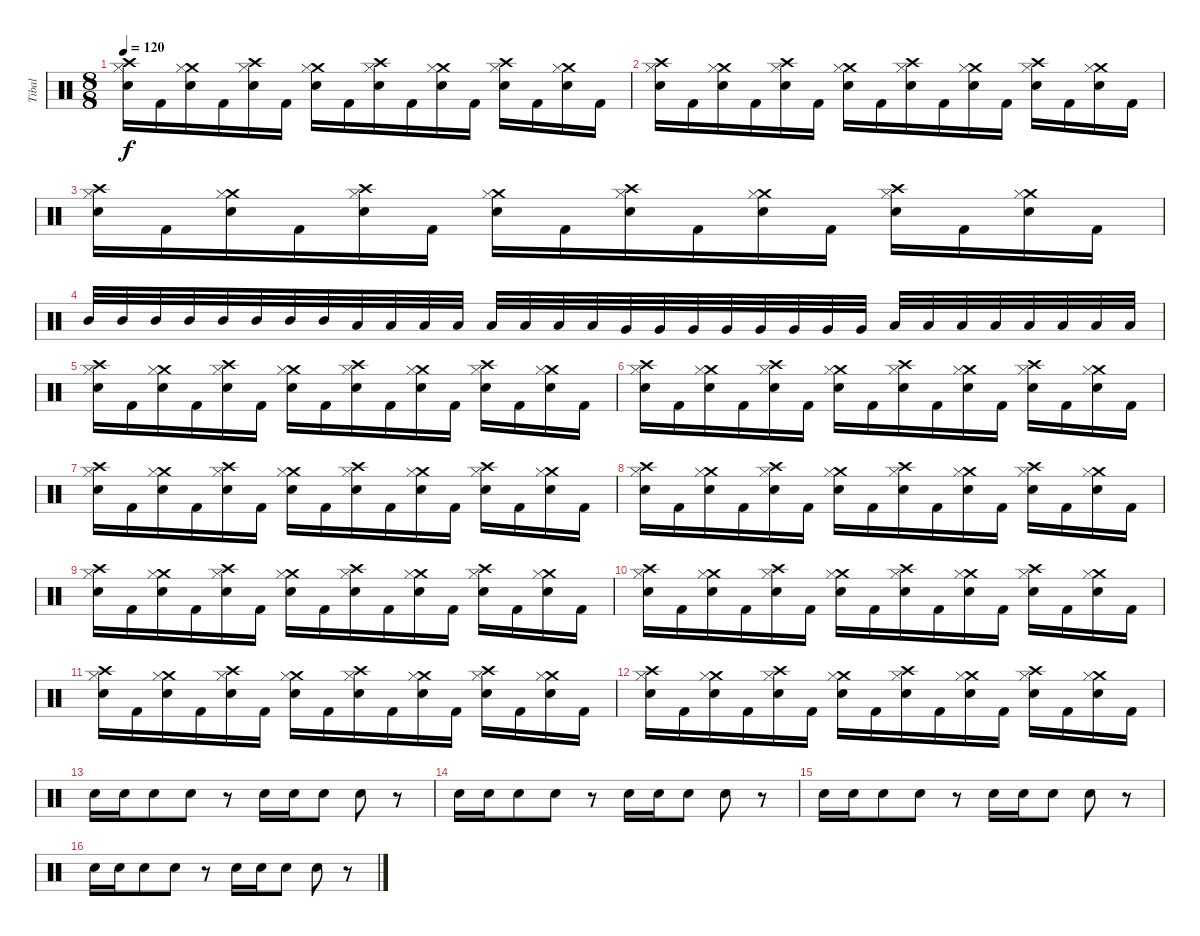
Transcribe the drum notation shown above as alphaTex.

\track ("Tibal" "Tibal") {instrument percussion}
\staff {score}
\articulation defaults
\ts (8 8)
\tempo 120
\clef neutral
\ks c
("Crash high (hit)" "Snare (hit) 2" "Hi-Hat (closed)").16{dy f} "Kick (hit) 2".16 ("Crash medium (hit)" "Snare (hit) 2" "Hi-Hat (closed)").16 "Kick (hit) 2".16 ("Crash high (hit)" "Snare (hit) 2" "Hi-Hat (closed)").16 "Kick (hit) 2".16 ("Crash medium (hit)" "Snare (hit) 2" "Hi-Hat (closed)").16 "Kick (hit) 2".16 ("Crash high (hit)" "Snare (hit) 2" "Hi-Hat (closed)").16 "Kick (hit) 2".16 ("Crash medium (hit)" "Snare (hit) 2" "Hi-Hat (closed)").16 "Kick (hit) 2".16 ("Crash high (hit)" "Snare (hit) 2" "Hi-Hat (closed)").16 "Kick (hit) 2".16 ("Crash medium (hit)" "Snare (hit) 2" "Hi-Hat (closed)").16 "Kick (hit) 2".16 |
("Crash high (hit)" "Snare (hit) 2" "Hi-Hat (closed)").16 "Kick (hit) 2".16 ("Crash medium (hit)" "Snare (hit) 2" "Hi-Hat (closed)").16 "Kick (hit) 2".16 ("Crash high (hit)" "Snare (hit) 2" "Hi-Hat (closed)").16 "Kick (hit) 2".16 ("Crash medium (hit)" "Snare (hit) 2" "Hi-Hat (closed)").16 "Kick (hit) 2".16 ("Crash high (hit)" "Snare (hit) 2" "Hi-Hat (closed)").16 "Kick (hit) 2".16 ("Crash medium (hit)" "Snare (hit) 2" "Hi-Hat (closed)").16 "Kick (hit) 2".16 ("Crash high (hit)" "Snare (hit) 2" "Hi-Hat (closed)").16 "Kick (hit) 2".16 ("Crash medium (hit)" "Snare (hit) 2" "Hi-Hat (closed)").16 "Kick (hit) 2".16 |
("Crash high (hit)" "Snare (hit) 2" "Hi-Hat (closed)").16 "Kick (hit) 2".16 ("Crash medium (hit)" "Snare (hit) 2" "Hi-Hat (closed)").16 "Kick (hit) 2".16 ("Crash high (hit)" "Snare (hit) 2" "Hi-Hat (closed)").16 "Kick (hit) 2".16 ("Crash medium (hit)" "Snare (hit) 2" "Hi-Hat (closed)").16 "Kick (hit) 2".16 ("Crash high (hit)" "Snare (hit) 2" "Hi-Hat (closed)").16 "Kick (hit) 2".16 ("Crash medium (hit)" "Snare (hit) 2" "Hi-Hat (closed)").16 "Kick (hit) 2".16 ("Crash high (hit)" "Snare (hit) 2" "Hi-Hat (closed)").16 "Kick (hit) 2".16 ("Crash medium (hit)" "Snare (hit) 2" "Hi-Hat (closed)").16 "Kick (hit) 2".16 |
"Mid Tom (hit)".32 "Mid Tom (hit)".32 "Mid Tom (hit)".32 "Mid Tom (hit)".32 "Mid Tom (hit)".32 "Mid Tom (hit)".32 "Mid Tom (hit)".32 "Mid Tom (hit)".32 "Low Tom (hit)".32 "Low Tom (hit)".32 "Low Tom (hit)".32 "Low Tom (hit)".32 "Low Tom (hit)".32 "Low Tom (hit)".32 "Low Tom (hit)".32 "Low Tom (hit)".32 "Very Low Tom (hit)".32 "Very Low Tom (hit)".32 "Very Low Tom (hit)".32 "Very Low Tom (hit)".32 "Very Low Tom (hit)".32 "Very Low Tom (hit)".32 "Very Low Tom (hit)".32 "Very Low Tom (hit)".32 "Low Floor Tom (hit)".32 "Low Floor Tom (hit)".32 "Low Floor Tom (hit)".32 "Low Floor Tom (hit)".32 "Low Floor Tom (hit)".32 "Low Floor Tom (hit)".32 "Low Floor Tom (hit)".32 "Low Floor Tom (hit)".32 |
("Crash high (hit)" "Snare (hit) 2" "Hi-Hat (closed)").16 "Kick (hit) 2".16 ("Crash medium (hit)" "Snare (hit) 2" "Hi-Hat (closed)").16 "Kick (hit) 2".16 ("Crash high (hit)" "Snare (hit) 2" "Hi-Hat (closed)").16 "Kick (hit) 2".16 ("Crash medium (hit)" "Snare (hit) 2" "Hi-Hat (closed)").16 "Kick (hit) 2".16 ("Crash high (hit)" "Snare (hit) 2" "Hi-Hat (closed)").16 "Kick (hit) 2".16 ("Crash medium (hit)" "Snare (hit) 2" "Hi-Hat (closed)").16 "Kick (hit) 2".16 ("Crash high (hit)" "Snare (hit) 2" "Hi-Hat (closed)").16 "Kick (hit) 2".16 ("Crash medium (hit)" "Snare (hit) 2" "Hi-Hat (closed)").16 "Kick (hit) 2".16 |
("Crash high (hit)" "Snare (hit) 2" "Hi-Hat (closed)").16 "Kick (hit) 2".16 ("Crash medium (hit)" "Snare (hit) 2" "Hi-Hat (closed)").16 "Kick (hit) 2".16 ("Crash high (hit)" "Snare (hit) 2" "Hi-Hat (closed)").16 "Kick (hit) 2".16 ("Crash medium (hit)" "Snare (hit) 2" "Hi-Hat (closed)").16 "Kick (hit) 2".16 ("Crash high (hit)" "Snare (hit) 2" "Hi-Hat (closed)").16 "Kick (hit) 2".16 ("Crash medium (hit)" "Snare (hit) 2" "Hi-Hat (closed)").16 "Kick (hit) 2".16 ("Crash high (hit)" "Snare (hit) 2" "Hi-Hat (closed)").16 "Kick (hit) 2".16 ("Crash medium (hit)" "Snare (hit) 2" "Hi-Hat (closed)").16 "Kick (hit) 2".16 |
("Crash high (hit)" "Snare (hit) 2" "Hi-Hat (closed)").16 "Kick (hit) 2".16 ("Crash medium (hit)" "Snare (hit) 2" "Hi-Hat (closed)").16 "Kick (hit) 2".16 ("Crash high (hit)" "Snare (hit) 2" "Hi-Hat (closed)").16 "Kick (hit) 2".16 ("Crash medium (hit)" "Snare (hit) 2" "Hi-Hat (closed)").16 "Kick (hit) 2".16 ("Crash high (hit)" "Snare (hit) 2" "Hi-Hat (closed)").16 "Kick (hit) 2".16 ("Crash medium (hit)" "Snare (hit) 2" "Hi-Hat (closed)").16 "Kick (hit) 2".16 ("Crash high (hit)" "Snare (hit) 2" "Hi-Hat (closed)").16 "Kick (hit) 2".16 ("Crash medium (hit)" "Snare (hit) 2" "Hi-Hat (closed)").16 "Kick (hit) 2".16 |
("Crash high (hit)" "Snare (hit) 2" "Hi-Hat (closed)").16 "Kick (hit) 2".16 ("Crash medium (hit)" "Snare (hit) 2" "Hi-Hat (closed)").16 "Kick (hit) 2".16 ("Crash high (hit)" "Snare (hit) 2" "Hi-Hat (closed)").16 "Kick (hit) 2".16 ("Crash medium (hit)" "Snare (hit) 2" "Hi-Hat (closed)").16 "Kick (hit) 2".16 ("Crash high (hit)" "Snare (hit) 2" "Hi-Hat (closed)").16 "Kick (hit) 2".16 ("Crash medium (hit)" "Snare (hit) 2" "Hi-Hat (closed)").16 "Kick (hit) 2".16 ("Crash high (hit)" "Snare (hit) 2" "Hi-Hat (closed)").16 "Kick (hit) 2".16 ("Crash medium (hit)" "Snare (hit) 2" "Hi-Hat (closed)").16 "Kick (hit) 2".16 |
("Crash high (hit)" "Snare (hit) 2" "Hi-Hat (closed)").16 "Kick (hit) 2".16 ("Crash medium (hit)" "Snare (hit) 2" "Hi-Hat (closed)").16 "Kick (hit) 2".16 ("Crash high (hit)" "Snare (hit) 2" "Hi-Hat (closed)").16 "Kick (hit) 2".16 ("Crash medium (hit)" "Snare (hit) 2" "Hi-Hat (closed)").16 "Kick (hit) 2".16 ("Crash high (hit)" "Snare (hit) 2" "Hi-Hat (closed)").16 "Kick (hit) 2".16 ("Crash medium (hit)" "Snare (hit) 2" "Hi-Hat (closed)").16 "Kick (hit) 2".16 ("Crash high (hit)" "Snare (hit) 2" "Hi-Hat (closed)").16 "Kick (hit) 2".16 ("Crash medium (hit)" "Snare (hit) 2" "Hi-Hat (closed)").16 "Kick (hit) 2".16 |
("Crash high (hit)" "Snare (hit) 2" "Hi-Hat (closed)").16 "Kick (hit) 2".16 ("Crash medium (hit)" "Snare (hit) 2" "Hi-Hat (closed)").16 "Kick (hit) 2".16 ("Crash high (hit)" "Snare (hit) 2" "Hi-Hat (closed)").16 "Kick (hit) 2".16 ("Crash medium (hit)" "Snare (hit) 2" "Hi-Hat (closed)").16 "Kick (hit) 2".16 ("Crash high (hit)" "Snare (hit) 2" "Hi-Hat (closed)").16 "Kick (hit) 2".16 ("Crash medium (hit)" "Snare (hit) 2" "Hi-Hat (closed)").16 "Kick (hit) 2".16 ("Crash high (hit)" "Snare (hit) 2" "Hi-Hat (closed)").16 "Kick (hit) 2".16 ("Crash medium (hit)" "Snare (hit) 2" "Hi-Hat (closed)").16 "Kick (hit) 2".16 |
("Crash high (hit)" "Snare (hit) 2" "Hi-Hat (closed)").16 "Kick (hit) 2".16 ("Crash medium (hit)" "Snare (hit) 2" "Hi-Hat (closed)").16 "Kick (hit) 2".16 ("Crash high (hit)" "Snare (hit) 2" "Hi-Hat (closed)").16 "Kick (hit) 2".16 ("Crash medium (hit)" "Snare (hit) 2" "Hi-Hat (closed)").16 "Kick (hit) 2".16 ("Crash high (hit)" "Snare (hit) 2" "Hi-Hat (closed)").16 "Kick (hit) 2".16 ("Crash medium (hit)" "Snare (hit) 2" "Hi-Hat (closed)").16 "Kick (hit) 2".16 ("Crash high (hit)" "Snare (hit) 2" "Hi-Hat (closed)").16 "Kick (hit) 2".16 ("Crash medium (hit)" "Snare (hit) 2" "Hi-Hat (closed)").16 "Kick (hit) 2".16 |
("Crash high (hit)" "Snare (hit) 2" "Hi-Hat (closed)").16 "Kick (hit) 2".16 ("Crash medium (hit)" "Snare (hit) 2" "Hi-Hat (closed)").16 "Kick (hit) 2".16 ("Crash high (hit)" "Snare (hit) 2" "Hi-Hat (closed)").16 "Kick (hit) 2".16 ("Crash medium (hit)" "Snare (hit) 2" "Hi-Hat (closed)").16 "Kick (hit) 2".16 ("Crash high (hit)" "Snare (hit) 2" "Hi-Hat (closed)").16 "Kick (hit) 2".16 ("Crash medium (hit)" "Snare (hit) 2" "Hi-Hat (closed)").16 "Kick (hit) 2".16 ("Crash high (hit)" "Snare (hit) 2" "Hi-Hat (closed)").16 "Kick (hit) 2".16 ("Crash medium (hit)" "Snare (hit) 2" "Hi-Hat (closed)").16 "Kick (hit) 2".16 |
"Snare (hit) 2".16 "Snare (hit) 2".16 "Snare (hit) 2".8 "Snare (hit) 2".8 r.8 "Snare (hit) 2".16 "Snare (hit) 2".16 "Snare (hit) 2".8 "Snare (hit) 2".8 r.8 |
"Snare (hit) 2".16 "Snare (hit) 2".16 "Snare (hit) 2".8 "Snare (hit) 2".8 r.8 "Snare (hit) 2".16 "Snare (hit) 2".16 "Snare (hit) 2".8 "Snare (hit) 2".8 r.8 |
"Snare (hit) 2".16 "Snare (hit) 2".16 "Snare (hit) 2".8 "Snare (hit) 2".8 r.8 "Snare (hit) 2".16 "Snare (hit) 2".16 "Snare (hit) 2".8 "Snare (hit) 2".8 r.8 |
"Snare (hit) 2".16 "Snare (hit) 2".16 "Snare (hit) 2".8 "Snare (hit) 2".8 r.8 "Snare (hit) 2".16 "Snare (hit) 2".16 "Snare (hit) 2".8 "Snare (hit) 2".8 r.8
